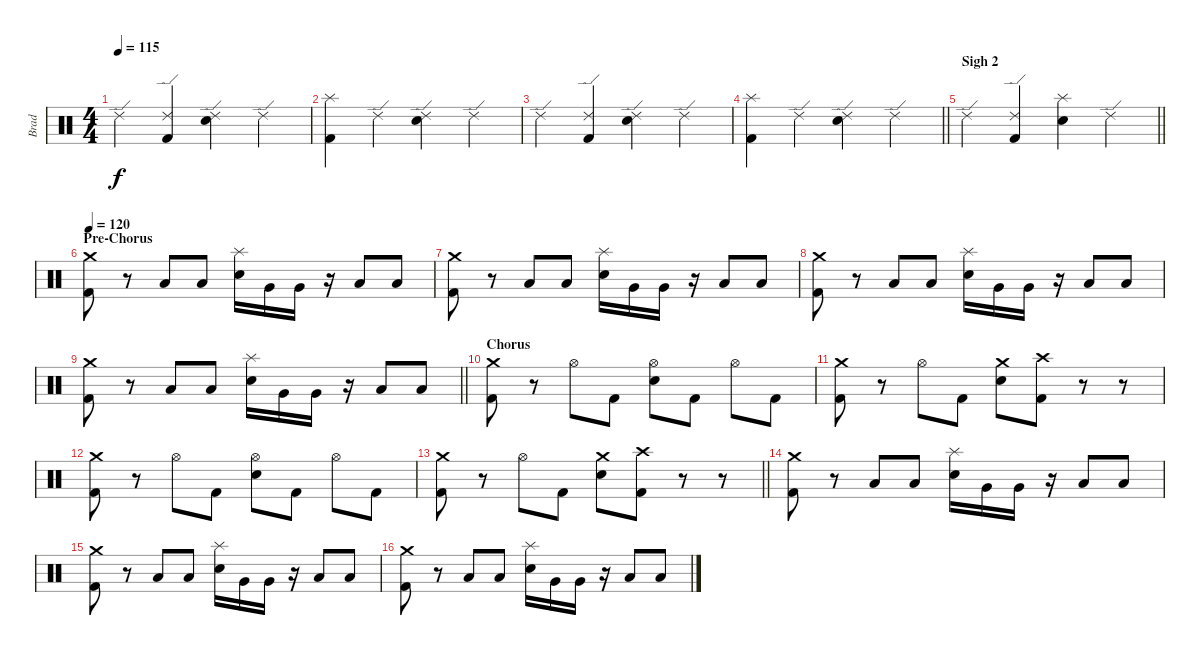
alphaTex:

\track ("Brad" "Brad") {instrument percussion}
\staff {score}
\articulation defaults
\ts (4 4)
\tempo 115
\clef neutral
\ks c "Ride (edge) 2".4{dy f}
("Ride (edge) 2" "Kick (hit) 2").4 ("Ride (edge) 2" "Electric Snare (hit)").4 "Ride (edge) 2".4 |
("Splash (hit)" "Kick (hit) 2").4 "Ride (edge) 2".4 ("Ride (edge) 2" "Electric Snare (hit)").4 "Ride (edge) 2".4 |
"Ride (edge) 2".4 ("Ride (edge) 2" "Kick (hit) 2").4 ("Ride (edge) 2" "Electric Snare (hit)").4 "Ride (edge) 2".4 |
\barLineRight lightlight
("Splash (hit)" "Kick (hit) 2").4 "Ride (edge) 2".4 ("Ride (edge) 2" "Electric Snare (hit)").4 "Ride (edge) 2".4 |
\section ("" "Sigh 2")
\barLineRight lightlight "Ride (edge) 2".4
("Ride (edge) 2" "Kick (hit) 2").4 ("Splash (hit)" "Electric Snare (hit)").4 "Ride (edge) 2".4 |
\section ("" "Pre-Chorus")
\tempo 120
("Crash medium (hit)" "Kick (hit) 2").8 r.8 "Low Tom (hit)".8 "Low Tom (hit)".8 ("Splash (hit)" "Electric Snare (hit)").16 "Very Low Tom (hit)".16 "Very Low Tom (hit)".16 r.16 "Low Tom (hit)".8 "Low Tom (hit)".8 |
("Crash medium (hit)" "Kick (hit) 2").8 r.8 "Low Tom (hit)".8 "Low Tom (hit)".8 ("Splash (hit)" "Electric Snare (hit)").16 "Very Low Tom (hit)".16 "Very Low Tom (hit)".16 r.16 "Low Tom (hit)".8 "Low Tom (hit)".8 |
("Crash medium (hit)" "Kick (hit) 2").8 r.8 "Low Tom (hit)".8 "Low Tom (hit)".8 ("Splash (hit)" "Electric Snare (hit)").16 "Very Low Tom (hit)".16 "Very Low Tom (hit)".16 r.16 "Low Tom (hit)".8 "Low Tom (hit)".8 |
\barLineRight lightlight
("Crash medium (hit)" "Kick (hit) 2").8 r.8 "Low Tom (hit)".8 "Low Tom (hit)".8 ("Splash (hit)" "Electric Snare (hit)").16 "Very Low Tom (hit)".16 "Very Low Tom (hit)".16 r.16 "Low Tom (hit)".8 "Low Tom (hit)".8 |
\section ("" "Chorus")
("Crash medium (hit)" "Kick (hit) 2").8 r.8 "Hi-Hat (open)".8 "Kick (hit) 2".8 ("Hi-Hat (open)" "Electric Snare (hit)").8 "Kick (hit) 2".8 "Hi-Hat (open)".8 "Kick (hit) 2".8 |
("Crash medium (hit)" "Kick (hit) 2").8 r.8 "Hi-Hat (open)".8 "Kick (hit) 2".8 ("Crash medium (hit)" "Electric Snare (hit)").8 ("Crash high (hit)" "Kick (hit) 2").8 r.8 r.8 |
("Crash medium (hit)" "Kick (hit) 2").8 r.8 "Hi-Hat (open)".8 "Kick (hit) 2".8 ("Hi-Hat (open)" "Electric Snare (hit)").8 "Kick (hit) 2".8 "Hi-Hat (open)".8 "Kick (hit) 2".8 |
\barLineRight lightlight
("Crash medium (hit)" "Kick (hit) 2").8 r.8 "Hi-Hat (open)".8 "Kick (hit) 2".8 ("Crash medium (hit)" "Electric Snare (hit)").8 ("Crash high (hit)" "Kick (hit) 2").8 r.8 r.8 |
("Crash medium (hit)" "Kick (hit) 2").8 r.8 "Low Tom (hit)".8 "Low Tom (hit)".8 ("Splash (hit)" "Electric Snare (hit)").16 "Very Low Tom (hit)".16 "Very Low Tom (hit)".16 r.16 "Low Tom (hit)".8 "Low Tom (hit)".8 |
("Crash medium (hit)" "Kick (hit) 2").8 r.8 "Low Tom (hit)".8 "Low Tom (hit)".8 ("Splash (hit)" "Electric Snare (hit)").16 "Very Low Tom (hit)".16 "Very Low Tom (hit)".16 r.16 "Low Tom (hit)".8 "Low Tom (hit)".8 |
("Crash medium (hit)" "Kick (hit) 2").8 r.8 "Low Tom (hit)".8 "Low Tom (hit)".8 ("Splash (hit)" "Electric Snare (hit)").16 "Very Low Tom (hit)".16 "Very Low Tom (hit)".16 r.16 "Low Tom (hit)".8 "Low Tom (hit)".8
